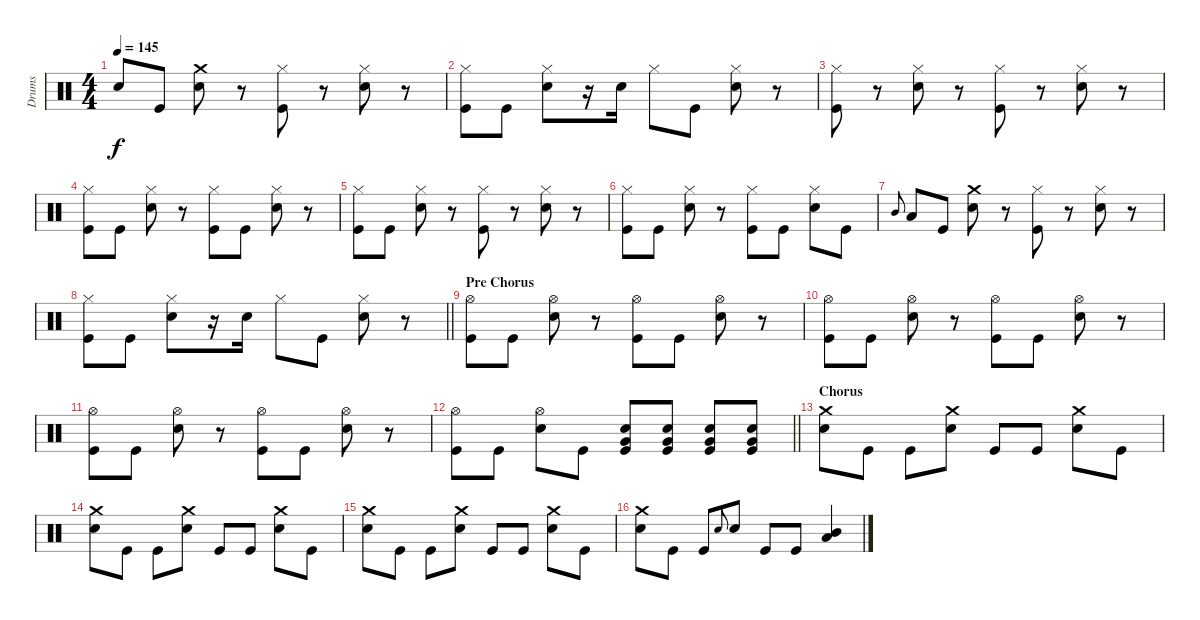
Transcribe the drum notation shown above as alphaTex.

\track ("Drums" "Drums") {instrument percussion}
\staff {score}
\articulation defaults
\ts (4 4)
\tempo 145
\clef neutral
\ks c "Snare (hit) 2".8{dy f} "Kick (hit)".8
("Crash medium (hit)" "Snare (hit) 2").8 r.8 ("Hi-Hat (closed)" "Kick (hit)").8 r.8 ("Hi-Hat (closed)" "Snare (hit) 2").8 r.8 |
("Hi-Hat (closed)" "Kick (hit)").8 "Kick (hit)".8 ("Hi-Hat (closed)" "Snare (hit) 2").8 r.16 "Snare (hit) 2".16 "Hi-Hat (closed)".8 "Kick (hit)".8 ("Hi-Hat (closed)" "Snare (hit) 2").8 r.8 |
("Hi-Hat (closed)" "Kick (hit)").8 r.8 ("Hi-Hat (closed)" "Snare (hit) 2").8 r.8 ("Hi-Hat (closed)" "Kick (hit)").8 r.8 ("Hi-Hat (closed)" "Snare (hit) 2").8 r.8 |
("Hi-Hat (closed)" "Kick (hit)").8 "Kick (hit)".8 ("Hi-Hat (closed)" "Snare (hit) 2").8 r.8 ("Hi-Hat (closed)" "Kick (hit)").8 "Kick (hit)".8 ("Hi-Hat (closed)" "Snare (hit) 2").8 r.8 |
("Hi-Hat (closed)" "Kick (hit)").8 "Kick (hit)".8 ("Hi-Hat (closed)" "Snare (hit) 2").8 r.8 ("Hi-Hat (closed)" "Kick (hit)").8 r.8 ("Hi-Hat (closed)" "Snare (hit) 2").8 r.8 |
("Hi-Hat (closed)" "Kick (hit)").8 "Kick (hit)".8 ("Hi-Hat (closed)" "Snare (hit) 2").8 r.8 ("Hi-Hat (closed)" "Kick (hit)").8 "Kick (hit)".8 ("Hi-Hat (closed)" "Snare (hit) 2").8 "Kick (hit)".8 |
"Mid Tom (hit)".8{gr onbeat} "Low Tom (hit)".8 "Kick (hit)".8 ("Crash medium (hit)" "Snare (hit) 2").8 r.8 ("Hi-Hat (closed)" "Kick (hit)").8 r.8 ("Hi-Hat (closed)" "Snare (hit) 2").8 r.8 |
\barLineRight lightlight
("Hi-Hat (closed)" "Kick (hit)").8 "Kick (hit)".8 ("Hi-Hat (closed)" "Snare (hit) 2").8 r.16 "Snare (hit) 2".16 "Hi-Hat (closed)".8 "Kick (hit)".8 ("Hi-Hat (closed)" "Snare (hit) 2").8 r.8 |
\section ("" "Pre Chorus")
("Hi-Hat (open)" "Kick (hit)").8 "Kick (hit)".8 ("Hi-Hat (open)" "Snare (hit) 2").8 r.8 ("Hi-Hat (open)" "Kick (hit)").8 "Kick (hit)".8 ("Hi-Hat (open)" "Snare (hit) 2").8 r.8 |
("Hi-Hat (open)" "Kick (hit)").8 "Kick (hit)".8 ("Hi-Hat (open)" "Snare (hit) 2").8 r.8 ("Hi-Hat (open)" "Kick (hit)").8 "Kick (hit)".8 ("Hi-Hat (open)" "Snare (hit) 2").8 r.8 |
("Hi-Hat (open)" "Kick (hit)").8 "Kick (hit)".8 ("Hi-Hat (open)" "Snare (hit) 2").8 r.8 ("Hi-Hat (open)" "Kick (hit)").8 "Kick (hit)".8 ("Hi-Hat (open)" "Snare (hit) 2").8 r.8 |
\barLineRight lightlight
("Hi-Hat (open)" "Kick (hit)").8 "Kick (hit)".8 ("Hi-Hat (open)" "Snare (hit) 2").8 "Kick (hit)".8 ("Very Low Tom (hit)" "Snare (hit) 2" "Kick (hit)").8 ("Very Low Tom (hit)" "Snare (hit) 2" "Kick (hit)").8 ("Very Low Tom (hit)" "Snare (hit) 2" "Kick (hit)").8 ("Very Low Tom (hit)" "Snare (hit) 2" "Kick (hit)").8 |
\section ("" "Chorus")
("Crash medium (hit)" "Snare (hit) 2").8 "Kick (hit)".8 "Kick (hit)".8 ("Crash medium (hit)" "Snare (hit) 2").8 "Kick (hit)".8 "Kick (hit)".8 ("Crash medium (hit)" "Snare (hit) 2").8 "Kick (hit)".8 |
("Crash medium (hit)" "Snare (hit) 2").8 "Kick (hit)".8 "Kick (hit)".8 ("Crash medium (hit)" "Snare (hit) 2").8 "Kick (hit)".8 "Kick (hit)".8 ("Crash medium (hit)" "Snare (hit) 2").8 "Kick (hit)".8 |
("Crash medium (hit)" "Snare (hit) 2").8 "Kick (hit)".8 "Kick (hit)".8 ("Crash medium (hit)" "Snare (hit) 2").8 "Kick (hit)".8 "Kick (hit)".8 ("Crash medium (hit)" "Snare (hit) 2").8 "Kick (hit)".8 |
("Crash medium (hit)" "Snare (hit) 2").8 "Kick (hit)".8 "Kick (hit)".8 "Snare (hit) 2".8{gr onbeat} "Snare (hit) 2".8 "Kick (hit)".8 "Kick (hit)".8 ("Mid Tom (hit)" "Low Tom (hit)").4
